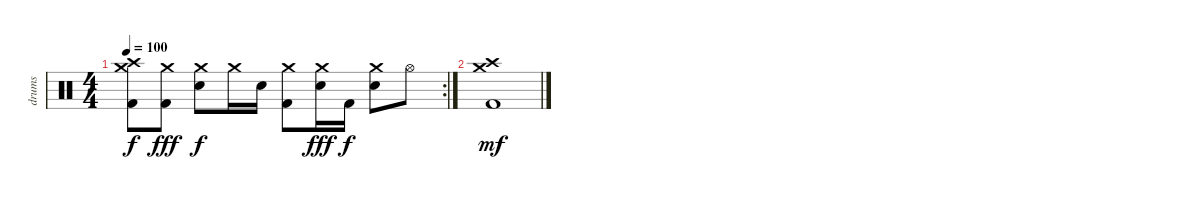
\track ("drums" "drums") {instrument percussion}
\staff {score}
\articulation defaults
\rc 2
\ts (4 4)
\tempo 100
\clef neutral
\ks c
("Crash medium (hit)" "Crash high (hit)" "Kick (hit) 2").8{dy f} ("Crash medium (hit)" "Kick (hit) 2").8{dy fff} ("Crash medium (hit)" "Electric Snare (hit)").8{dy f} "Crash medium (hit)".16 "Electric Snare (hit)".16 ("Crash medium (hit)" "Kick (hit) 2").8 ("Crash medium (hit)" "Electric Snare (hit)").16{dy fff} "Kick (hit) 2".16{dy f} ("Crash medium (hit)" "Electric Snare (hit)").8 "Hi-Hat (open)".8 |
("Kick (hit) 2" "Crash high (hit)" "Crash medium (hit)").1{dy mf}
